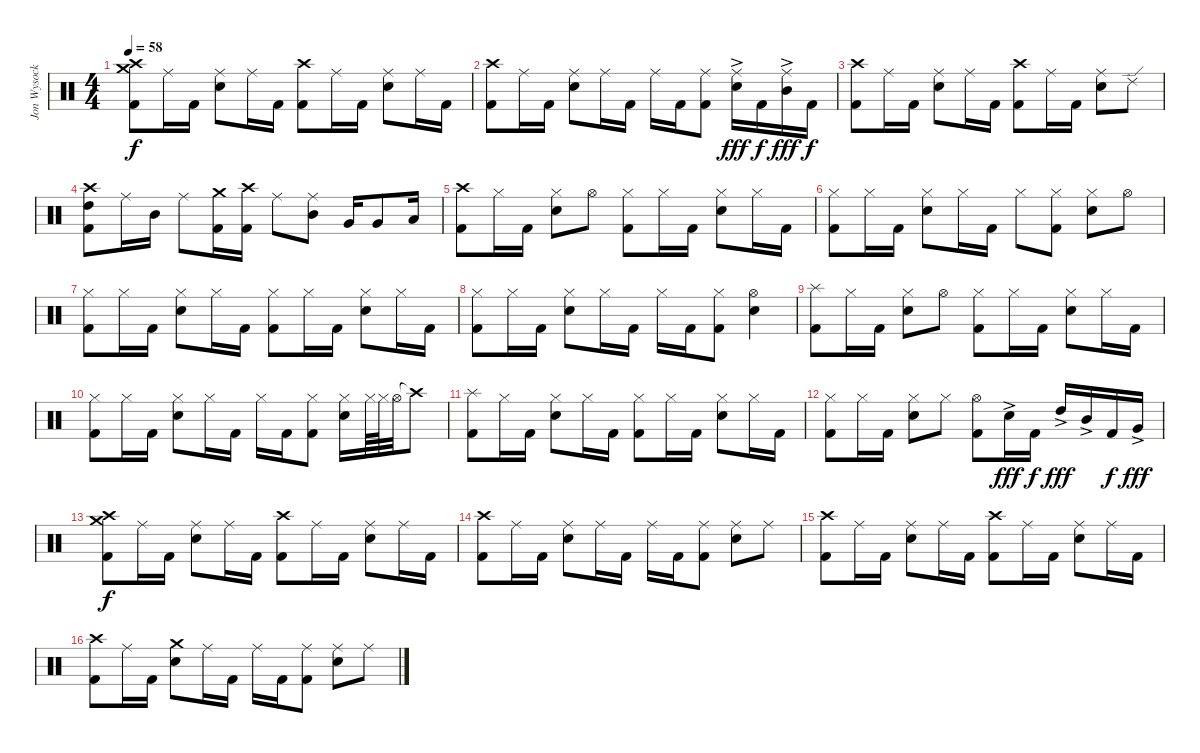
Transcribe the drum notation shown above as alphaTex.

\track ("Jon Wysocki  (Drums)" "Jon Wysock") {instrument percussion}
\staff {score}
\articulation defaults
\ts (4 4)
\tempo 58
\clef neutral
\ks c
("Crash high (hit)" "Crash medium (hit)" "Kick (hit) 2").8{dy f} "Ride (middle)".16 "Kick (hit) 2".16 ("Ride (middle)" "Electric Snare (hit)").8 "Ride (middle)".16 "Kick (hit) 2".16 ("Crash high (hit)" "Kick (hit) 2").8 "Ride (middle)".16 "Kick (hit) 2".16 ("Ride (middle)" "Electric Snare (hit)").8 "Ride (middle)".16 "Kick (hit) 2".16 |
("Crash high (hit)" "Kick (hit) 2").8 "Ride (middle)".16 "Kick (hit) 2".16 ("Ride (middle)" "Electric Snare (hit)").8 "Ride (middle)".16 "Kick (hit) 2".16 "Ride (middle)".16 "Kick (hit) 2".16 ("Ride (middle)" "Kick (hit) 2").8 ("Ride (middle)" "Electric Snare (hit)"{ac}).16{dy fff} "Kick (hit) 2".16{dy f} ("Ride (middle)" "Mid Tom (hit)"{ac}).16{dy fff} "Kick (hit) 2".16{dy f} |
("Crash high (hit)" "Kick (hit) 2").8 "Ride (middle)".16 "Kick (hit) 2".16 ("Ride (middle)" "Electric Snare (hit)").8 "Ride (middle)".16 "Kick (hit) 2".16 ("Crash high (hit)" "Kick (hit) 2").8 "Ride (middle)".16 "Kick (hit) 2".16 ("Ride (middle)" "Electric Snare (hit)").8 "Ride (edge) 2".8 |
("Crash high (hit)" "High Tom (hit)" "Kick (hit) 2").8 "Ride (middle)".16 "Mid Tom (hit)".16 "Ride (middle)".8 ("Crash medium (hit)" "Kick (hit) 2").16 ("Crash high (hit)" "Kick (hit) 2").16 "Ride (middle)".8 ("Ride (middle)" "Mid Tom (hit)").8 "Very Low Tom (hit)".16 "Very Low Tom (hit)".8 "Low Floor Tom (hit)".16 |
("Crash high (hit)" "Kick (hit) 2").8 "Hi-Hat (closed)".16 "Kick (hit) 2".16 ("Hi-Hat (closed)" "Electric Snare (hit)").8 "Hi-Hat (open)".8 ("Hi-Hat (closed)" "Kick (hit) 2").8 "Hi-Hat (closed)".16 "Kick (hit) 2".16 ("Hi-Hat (closed)" "Electric Snare (hit)").8 "Hi-Hat (closed)".16 "Kick (hit) 2".16 |
("Hi-Hat (closed)" "Kick (hit) 2").8 "Hi-Hat (closed)".16 "Kick (hit) 2".16 ("Hi-Hat (closed)" "Electric Snare (hit)").8 "Hi-Hat (closed)".16 "Kick (hit) 2".16 "Hi-Hat (closed)".8 ("Hi-Hat (closed)" "Kick (hit) 2").8 ("Hi-Hat (closed)" "Electric Snare (hit)").8 "Hi-Hat (open)".8 |
("Hi-Hat (closed)" "Kick (hit) 2").8 "Hi-Hat (closed)".16 "Kick (hit) 2".16 ("Hi-Hat (closed)" "Electric Snare (hit)").8 "Hi-Hat (closed)".16 "Kick (hit) 2".16 ("Hi-Hat (closed)" "Kick (hit) 2").8 "Hi-Hat (closed)".16 "Kick (hit) 2".16 ("Hi-Hat (closed)" "Electric Snare (hit)").8 "Hi-Hat (closed)".16 "Kick (hit) 2".16 |
("Hi-Hat (closed)" "Kick (hit) 2").8 "Hi-Hat (closed)".16 "Kick (hit) 2".16 ("Hi-Hat (closed)" "Electric Snare (hit)").8 "Hi-Hat (closed)".16 "Kick (hit) 2".16 "Hi-Hat (closed)".16 "Kick (hit) 2".16 ("Hi-Hat (closed)" "Kick (hit) 2").8 ("Hi-Hat (open)" "Electric Snare (hit)").4 |
("Splash (hit)" "Kick (hit) 2").8 "Hi-Hat (closed)".16 "Kick (hit) 2".16 ("Hi-Hat (closed)" "Electric Snare (hit)").8 "Hi-Hat (open)".8 ("Hi-Hat (closed)" "Kick (hit) 2").8 "Hi-Hat (closed)".16 "Kick (hit) 2".16 ("Hi-Hat (closed)" "Electric Snare (hit)").8 "Hi-Hat (closed)".16 "Kick (hit) 2".16 |
("Hi-Hat (closed)" "Kick (hit) 2").8 "Hi-Hat (closed)".16 "Kick (hit) 2".16 ("Hi-Hat (closed)" "Electric Snare (hit)").8 "Hi-Hat (closed)".16 "Kick (hit) 2".16 "Hi-Hat (closed)".16 "Kick (hit) 2".16 ("Hi-Hat (closed)" "Kick (hit) 2").8 ("Hi-Hat (closed)" "Electric Snare (hit)").16 "Hi-Hat (closed)".64 "Hi-Hat (closed)".64 "Hi-Hat (open)".32 "Crash high (hit)"{t}.8 |
("Splash (hit)" "Kick (hit) 2").8 "Hi-Hat (closed)".16 "Kick (hit) 2".16 ("Hi-Hat (closed)" "Electric Snare (hit)").8 "Hi-Hat (closed)".16 "Kick (hit) 2".16 ("Hi-Hat (closed)" "Kick (hit) 2").8 "Hi-Hat (closed)".16 "Kick (hit) 2".16 ("Hi-Hat (closed)" "Electric Snare (hit)").8 "Hi-Hat (closed)".16 "Kick (hit) 2".16 |
("Hi-Hat (closed)" "Kick (hit) 2").8 "Hi-Hat (closed)".16 "Kick (hit) 2".16 ("Hi-Hat (closed)" "Electric Snare (hit)").8 "Hi-Hat (closed)".8 ("Hi-Hat (open)" "Kick (hit) 2").8 "Electric Snare (hit)"{ac}.16{dy fff} "Kick (hit) 2".16{dy f} "High Tom (hit)"{ac}.16{dy fff} "Mid Tom (hit)"{ac}.16 "Kick (hit) 2".16{dy f} "Very Low Tom (hit)"{ac}.16{dy fff} |
("Crash high (hit)" "Crash medium (hit)" "Kick (hit) 2").8{dy f} "Ride (middle)".16 "Kick (hit) 2".16 ("Ride (middle)" "Electric Snare (hit)").8 "Ride (middle)".16 "Kick (hit) 2".16 ("Crash high (hit)" "Kick (hit) 2").8 "Ride (middle)".16 "Kick (hit) 2".16 ("Ride (middle)" "Electric Snare (hit)").8 "Ride (middle)".16 "Kick (hit) 2".16 |
("Crash high (hit)" "Kick (hit) 2").8 "Ride (middle)".16 "Kick (hit) 2".16 ("Ride (middle)" "Electric Snare (hit)").8 "Ride (middle)".16 "Kick (hit) 2".16 "Ride (middle)".16 "Kick (hit) 2".16 ("Ride (middle)" "Kick (hit) 2").8 ("Ride (middle)" "Electric Snare (hit)").8 "Ride (middle)".8 |
("Crash high (hit)" "Kick (hit) 2").8 "Ride (middle)".16 "Kick (hit) 2".16 ("Ride (middle)" "Electric Snare (hit)").8 "Ride (middle)".16 "Kick (hit) 2".16 ("Crash high (hit)" "Kick (hit) 2").8 "Ride (middle)".16 "Kick (hit) 2".16 ("Ride (middle)" "Electric Snare (hit)").8 "Ride (middle)".16 "Kick (hit) 2".16 |
("Crash high (hit)" "Kick (hit) 2").8 "Ride (middle)".16 "Kick (hit) 2".16 ("Crash medium (hit)" "Electric Snare (hit)").8 "Ride (middle)".16 "Kick (hit) 2".16 "Ride (middle)".16 "Kick (hit) 2".16 ("Ride (middle)" "Kick (hit) 2").8 ("Ride (middle)" "Electric Snare (hit)").8 "Ride (middle)".8
